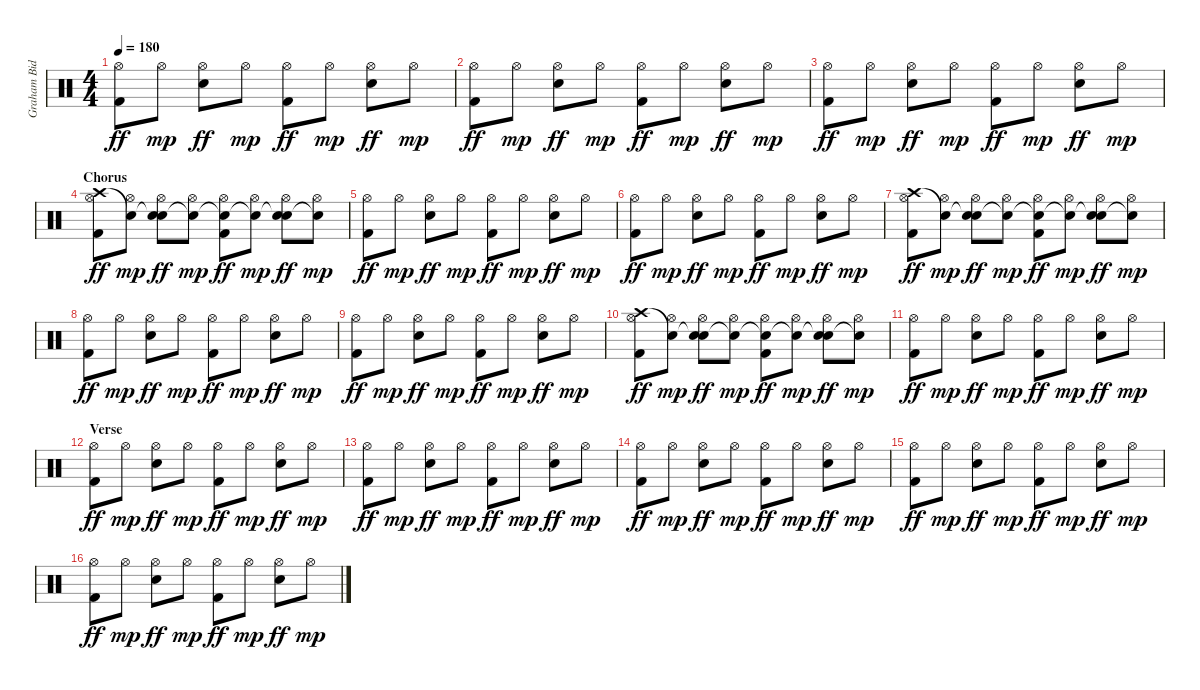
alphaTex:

\track ("Graham Bidstrup" "Graham Bid") {instrument percussion}
\staff {score}
\articulation defaults
\ts (4 4)
\tempo 180
\clef neutral
\ks c
("Hi-Hat (open)" "Kick (hit) 2").8{dy ff} "Hi-Hat (open)".8{dy mp} ("Hi-Hat (open)" "Snare (hit) 2").8{dy ff} "Hi-Hat (open)".8{dy mp} ("Hi-Hat (open)" "Kick (hit) 2").8{dy ff} "Hi-Hat (open)".8{dy mp} ("Hi-Hat (open)" "Snare (hit) 2").8{dy ff} "Hi-Hat (open)".8{dy mp} |
("Hi-Hat (open)" "Kick (hit) 2").8{dy ff} "Hi-Hat (open)".8{dy mp} ("Hi-Hat (open)" "Snare (hit) 2").8{dy ff} "Hi-Hat (open)".8{dy mp} ("Hi-Hat (open)" "Kick (hit) 2").8{dy ff} "Hi-Hat (open)".8{dy mp} ("Hi-Hat (open)" "Snare (hit) 2").8{dy ff} "Hi-Hat (open)".8{dy mp} |
("Hi-Hat (open)" "Kick (hit) 2").8{dy ff} "Hi-Hat (open)".8{dy mp} ("Hi-Hat (open)" "Snare (hit) 2").8{dy ff} "Hi-Hat (open)".8{dy mp} ("Hi-Hat (open)" "Kick (hit) 2").8{dy ff} "Hi-Hat (open)".8{dy mp} ("Hi-Hat (open)" "Snare (hit) 2").8{dy ff} "Hi-Hat (open)".8{dy mp} |
\section ("" "Chorus")
("Crash high (hit)" "Hi-Hat (open)" "Kick (hit) 2").8{dy ff} ("Snare (hit)"{t} "Hi-Hat (open)").8{dy mp} ("Snare (hit)"{t} "Hi-Hat (open)" "Snare (hit) 2").8{dy ff} ("Snare (hit)"{t} "Hi-Hat (open)").8{dy mp} ("Snare (hit)"{t} "Hi-Hat (open)" "Kick (hit) 2").8{dy ff} ("Snare (hit)"{t} "Hi-Hat (open)").8{dy mp} ("Snare (hit)"{t} "Hi-Hat (open)" "Snare (hit) 2").8{dy ff} ("Snare (hit)"{t} "Hi-Hat (open)").8{dy mp} |
("Hi-Hat (open)" "Kick (hit) 2").8{dy ff} "Hi-Hat (open)".8{dy mp} ("Hi-Hat (open)" "Snare (hit) 2").8{dy ff} "Hi-Hat (open)".8{dy mp} ("Hi-Hat (open)" "Kick (hit) 2").8{dy ff} "Hi-Hat (open)".8{dy mp} ("Hi-Hat (open)" "Snare (hit) 2").8{dy ff} "Hi-Hat (open)".8{dy mp} |
("Hi-Hat (open)" "Kick (hit) 2").8{dy ff} "Hi-Hat (open)".8{dy mp} ("Hi-Hat (open)" "Snare (hit) 2").8{dy ff} "Hi-Hat (open)".8{dy mp} ("Hi-Hat (open)" "Kick (hit) 2").8{dy ff} "Hi-Hat (open)".8{dy mp} ("Hi-Hat (open)" "Snare (hit) 2").8{dy ff} "Hi-Hat (open)".8{dy mp} |
("Crash high (hit)" "Hi-Hat (open)" "Kick (hit) 2").8{dy ff} ("Snare (hit)"{t} "Hi-Hat (open)").8{dy mp} ("Snare (hit)"{t} "Hi-Hat (open)" "Snare (hit) 2").8{dy ff} ("Snare (hit)"{t} "Hi-Hat (open)").8{dy mp} ("Snare (hit)"{t} "Hi-Hat (open)" "Kick (hit) 2").8{dy ff} ("Snare (hit)"{t} "Hi-Hat (open)").8{dy mp} ("Snare (hit)"{t} "Hi-Hat (open)" "Snare (hit) 2").8{dy ff} ("Snare (hit)"{t} "Hi-Hat (open)").8{dy mp} |
("Hi-Hat (open)" "Kick (hit) 2").8{dy ff} "Hi-Hat (open)".8{dy mp} ("Hi-Hat (open)" "Snare (hit) 2").8{dy ff} "Hi-Hat (open)".8{dy mp} ("Hi-Hat (open)" "Kick (hit) 2").8{dy ff} "Hi-Hat (open)".8{dy mp} ("Hi-Hat (open)" "Snare (hit) 2").8{dy ff} "Hi-Hat (open)".8{dy mp} |
("Hi-Hat (open)" "Kick (hit) 2").8{dy ff} "Hi-Hat (open)".8{dy mp} ("Hi-Hat (open)" "Snare (hit) 2").8{dy ff} "Hi-Hat (open)".8{dy mp} ("Hi-Hat (open)" "Kick (hit) 2").8{dy ff} "Hi-Hat (open)".8{dy mp} ("Hi-Hat (open)" "Snare (hit) 2").8{dy ff} "Hi-Hat (open)".8{dy mp} |
("Crash high (hit)" "Hi-Hat (open)" "Kick (hit) 2").8{dy ff} ("Snare (hit)"{t} "Hi-Hat (open)").8{dy mp} ("Snare (hit)"{t} "Hi-Hat (open)" "Snare (hit) 2").8{dy ff} ("Snare (hit)"{t} "Hi-Hat (open)").8{dy mp} ("Snare (hit)"{t} "Hi-Hat (open)" "Kick (hit) 2").8{dy ff} ("Snare (hit)"{t} "Hi-Hat (open)").8{dy mp} ("Snare (hit)"{t} "Hi-Hat (open)" "Snare (hit) 2").8{dy ff} ("Snare (hit)"{t} "Hi-Hat (open)").8{dy mp} |
("Hi-Hat (open)" "Kick (hit) 2").8{dy ff} "Hi-Hat (open)".8{dy mp} ("Hi-Hat (open)" "Snare (hit) 2").8{dy ff} "Hi-Hat (open)".8{dy mp} ("Hi-Hat (open)" "Kick (hit) 2").8{dy ff} "Hi-Hat (open)".8{dy mp} ("Hi-Hat (open)" "Snare (hit) 2").8{dy ff} "Hi-Hat (open)".8{dy mp} |
\section ("" "Verse")
("Hi-Hat (open)" "Kick (hit) 2").8{dy ff} "Hi-Hat (open)".8{dy mp} ("Hi-Hat (open)" "Snare (hit) 2").8{dy ff} "Hi-Hat (open)".8{dy mp} ("Hi-Hat (open)" "Kick (hit) 2").8{dy ff} "Hi-Hat (open)".8{dy mp} ("Hi-Hat (open)" "Snare (hit) 2").8{dy ff} "Hi-Hat (open)".8{dy mp} |
("Hi-Hat (open)" "Kick (hit) 2").8{dy ff} "Hi-Hat (open)".8{dy mp} ("Hi-Hat (open)" "Snare (hit) 2").8{dy ff} "Hi-Hat (open)".8{dy mp} ("Hi-Hat (open)" "Kick (hit) 2").8{dy ff} "Hi-Hat (open)".8{dy mp} ("Hi-Hat (open)" "Snare (hit) 2").8{dy ff} "Hi-Hat (open)".8{dy mp} |
("Hi-Hat (open)" "Kick (hit) 2").8{dy ff} "Hi-Hat (open)".8{dy mp} ("Hi-Hat (open)" "Snare (hit) 2").8{dy ff} "Hi-Hat (open)".8{dy mp} ("Hi-Hat (open)" "Kick (hit) 2").8{dy ff} "Hi-Hat (open)".8{dy mp} ("Hi-Hat (open)" "Snare (hit) 2").8{dy ff} "Hi-Hat (open)".8{dy mp} |
("Hi-Hat (open)" "Kick (hit) 2").8{dy ff} "Hi-Hat (open)".8{dy mp} ("Hi-Hat (open)" "Snare (hit) 2").8{dy ff} "Hi-Hat (open)".8{dy mp} ("Hi-Hat (open)" "Kick (hit) 2").8{dy ff} "Hi-Hat (open)".8{dy mp} ("Hi-Hat (open)" "Snare (hit) 2").8{dy ff} "Hi-Hat (open)".8{dy mp} |
("Hi-Hat (open)" "Kick (hit) 2").8{dy ff} "Hi-Hat (open)".8{dy mp} ("Hi-Hat (open)" "Snare (hit) 2").8{dy ff} "Hi-Hat (open)".8{dy mp} ("Hi-Hat (open)" "Kick (hit) 2").8{dy ff} "Hi-Hat (open)".8{dy mp} ("Hi-Hat (open)" "Snare (hit) 2").8{dy ff} "Hi-Hat (open)".8{dy mp}
